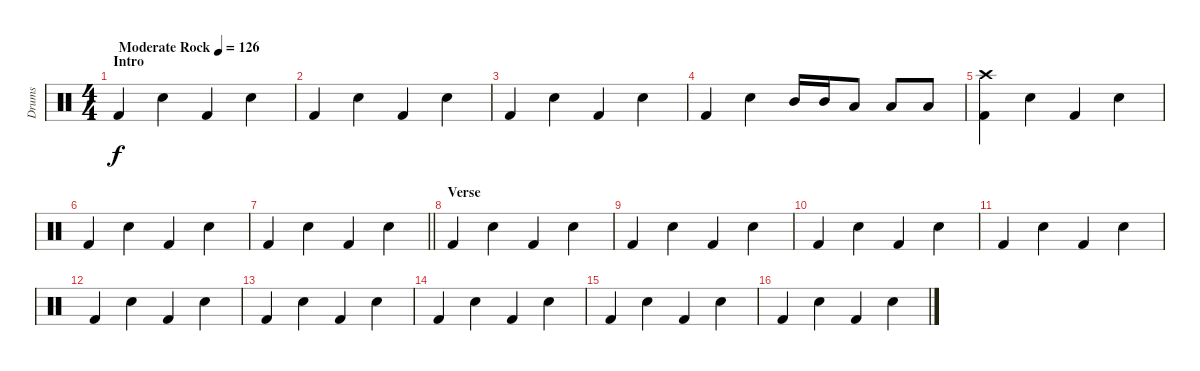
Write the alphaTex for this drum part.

\track ("Drums" "Drums") {instrument percussion}
\staff {score}
\articulation defaults
\ts (4 4)
\section ("" "Intro")
\tempo (126 "Moderate Rock")
\clef neutral
\ks c "Kick (hit) 2".4{dy f} "Electric Snare (hit)".4 "Kick (hit) 2".4 "Electric Snare (hit)".4
|
"Kick (hit) 2".4 "Electric Snare (hit)".4 "Kick (hit) 2".4 "Electric Snare (hit)".4 |
"Kick (hit) 2".4 "Electric Snare (hit)".4 "Kick (hit) 2".4 "Electric Snare (hit)".4 |
"Kick (hit) 2".4 "Electric Snare (hit)".4 "Mid Tom (hit)".16 "Mid Tom (hit)".16 "Low Tom (hit)".8 "Low Tom (hit)".8 "Low Floor Tom (hit)".8 |
("Crash high (hit)" "Kick (hit) 2").4 "Electric Snare (hit)".4 "Kick (hit) 2".4 "Electric Snare (hit)".4 |
"Kick (hit) 2".4 "Electric Snare (hit)".4 "Kick (hit) 2".4 "Electric Snare (hit)".4 |
\barLineRight lightlight "Kick (hit) 2".4 "Electric Snare (hit)".4 "Kick (hit) 2".4 "Electric Snare (hit)".4
|
\section ("" "Verse")
"Kick (hit) 2".4 "Electric Snare (hit)".4 "Kick (hit) 2".4 "Electric Snare (hit)".4 |
"Kick (hit) 2".4 "Electric Snare (hit)".4 "Kick (hit) 2".4 "Electric Snare (hit)".4 |
"Kick (hit) 2".4 "Electric Snare (hit)".4 "Kick (hit) 2".4 "Electric Snare (hit)".4 |
"Kick (hit) 2".4 "Electric Snare (hit)".4 "Kick (hit) 2".4 "Electric Snare (hit)".4 |
"Kick (hit) 2".4 "Electric Snare (hit)".4 "Kick (hit) 2".4 "Electric Snare (hit)".4 |
"Kick (hit) 2".4 "Electric Snare (hit)".4 "Kick (hit) 2".4 "Electric Snare (hit)".4 |
"Kick (hit) 2".4 "Electric Snare (hit)".4 "Kick (hit) 2".4 "Electric Snare (hit)".4 |
"Kick (hit) 2".4 "Electric Snare (hit)".4 "Kick (hit) 2".4 "Electric Snare (hit)".4 |
"Kick (hit) 2".4 "Electric Snare (hit)".4 "Kick (hit) 2".4 "Electric Snare (hit)".4
